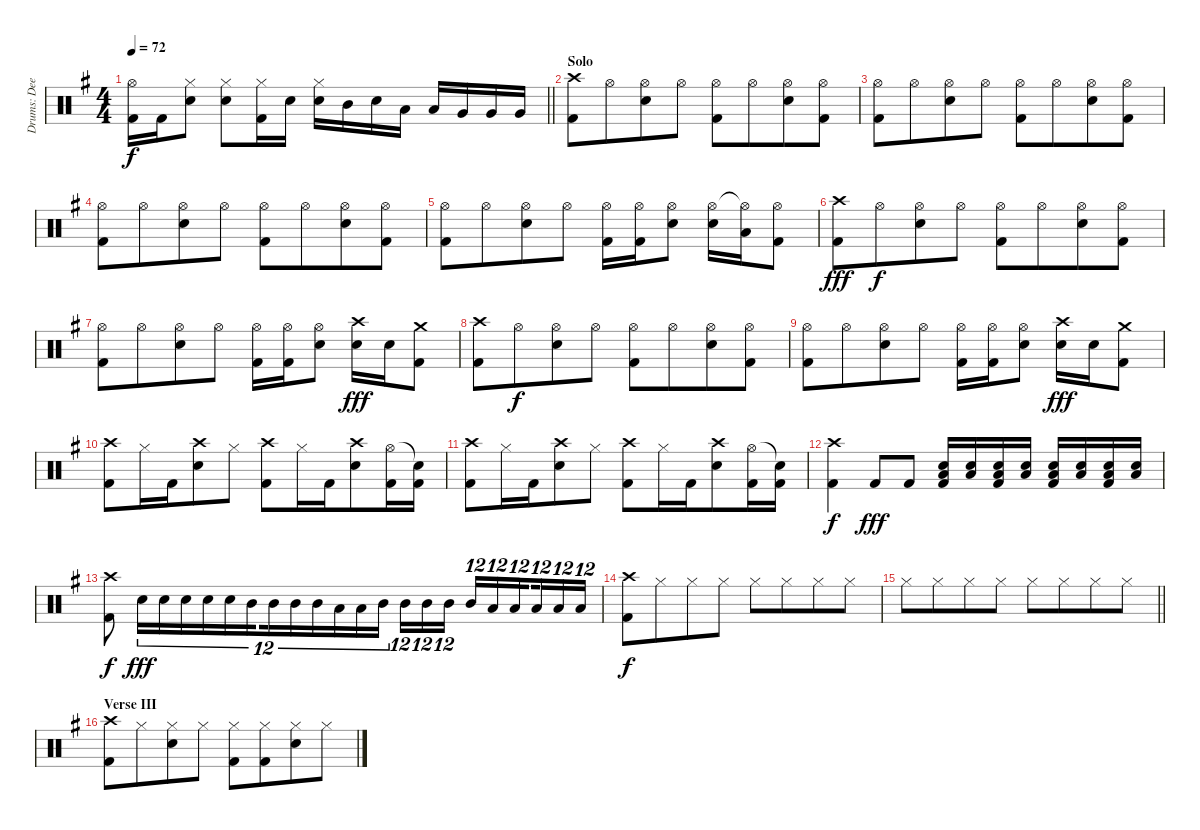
\track ("Drums: Deen" "Drums: Dee") {instrument percussion}
\staff {score}
\articulation defaults
\ts (4 4)
\tempo 72
\clef neutral
\barLineRight lightlight
\ks g
("Hi-Hat (open)" "Kick (hit) 2").16{dy f} "Kick (hit) 2".16 ("Hi-Hat (closed)" "Electric Snare (hit)").8 ("Hi-Hat (closed)" "Electric Snare (hit)").8 ("Hi-Hat (closed)" "Kick (hit) 2").16 "Electric Snare (hit)".16 ("Hi-Hat (closed)" "Electric Snare (hit)").16 "Mid Tom (hit)".16 "Electric Snare (hit)".16 "Low Tom (hit)".16 "Low Tom (hit)".16 "Very Low Tom (hit)".16 "Very Low Tom (hit)".16 "Very Low Tom (hit)".16 |
\section ("" "Solo")
("Crash high (hit)" "Kick (hit) 2").8 "Hi-Hat (open)".8{beam merge} ("Hi-Hat (open)" "Electric Snare (hit)").8 "Hi-Hat (open)".8 ("Hi-Hat (open)" "Kick (hit) 2").8 "Hi-Hat (open)".8{beam merge} ("Hi-Hat (open)" "Electric Snare (hit)").8 ("Hi-Hat (open)" "Kick (hit) 2").8 |
("Hi-Hat (open)" "Kick (hit) 2").8 "Hi-Hat (open)".8{beam merge} ("Hi-Hat (open)" "Electric Snare (hit)").8 "Hi-Hat (open)".8 ("Hi-Hat (open)" "Kick (hit) 2").8 "Hi-Hat (open)".8{beam merge} ("Hi-Hat (open)" "Electric Snare (hit)").8 ("Hi-Hat (open)" "Kick (hit) 2").8 |
("Hi-Hat (open)" "Kick (hit) 2").8 "Hi-Hat (open)".8{beam merge} ("Hi-Hat (open)" "Electric Snare (hit)").8 "Hi-Hat (open)".8 ("Hi-Hat (open)" "Kick (hit) 2").8 "Hi-Hat (open)".8{beam merge} ("Hi-Hat (open)" "Electric Snare (hit)").8 ("Hi-Hat (open)" "Kick (hit) 2").8 |
("Hi-Hat (open)" "Kick (hit) 2").8 "Hi-Hat (open)".8{beam merge} ("Hi-Hat (open)" "Electric Snare (hit)").8 "Hi-Hat (open)".8 ("Hi-Hat (open)" "Kick (hit) 2").16 ("Hi-Hat (open)" "Kick (hit) 2").16 ("Hi-Hat (open)" "Electric Snare (hit)").8 ("Hi-Hat (open)" "Electric Snare (hit)").16 ("Hi-Hat (open)"{t} "Low Tom (hit)").16 ("Hi-Hat (open)" "Kick (hit) 2").8 |
("Crash high (hit)" "Kick (hit) 2").8{dy fff} "Hi-Hat (open)".8{dy f beam merge} ("Hi-Hat (open)" "Electric Snare (hit)").8 "Hi-Hat (open)".8 ("Hi-Hat (open)" "Kick (hit) 2").8 "Hi-Hat (open)".8{beam merge} ("Hi-Hat (open)" "Electric Snare (hit)").8 ("Hi-Hat (open)" "Kick (hit) 2").8 |
("Hi-Hat (open)" "Kick (hit) 2").8 "Hi-Hat (open)".8{beam merge} ("Hi-Hat (open)" "Electric Snare (hit)").8 "Hi-Hat (open)".8 ("Hi-Hat (open)" "Kick (hit) 2").16 ("Hi-Hat (open)" "Kick (hit) 2").16 ("Hi-Hat (open)" "Electric Snare (hit)").8 ("Crash high (hit)" "Electric Snare (hit)").16{dy fff} "Electric Snare (hit)".16 ("Crash medium (hit)" "Kick (hit) 2").8 |
("Crash high (hit)" "Kick (hit) 2").8 "Hi-Hat (open)".8{dy f beam merge} ("Hi-Hat (open)" "Electric Snare (hit)").8 "Hi-Hat (open)".8 ("Hi-Hat (open)" "Kick (hit) 2").8 "Hi-Hat (open)".8{beam merge} ("Hi-Hat (open)" "Electric Snare (hit)").8 ("Hi-Hat (open)" "Kick (hit) 2").8 |
("Hi-Hat (open)" "Kick (hit) 2").8 "Hi-Hat (open)".8{beam merge} ("Hi-Hat (open)" "Electric Snare (hit)").8 "Hi-Hat (open)".8 ("Hi-Hat (open)" "Kick (hit) 2").16 ("Hi-Hat (open)" "Kick (hit) 2").16 ("Hi-Hat (open)" "Electric Snare (hit)").8 ("Crash high (hit)" "Electric Snare (hit)").16{dy fff} "Electric Snare (hit)".16 ("Crash medium (hit)" "Kick (hit) 2").8 |
("Crash high (hit)" "Kick (hit) 2").8 "Hi-Hat (closed)".16 "Kick (hit) 2".16{beam merge} ("Crash high (hit)" "Electric Snare (hit)").8 "Hi-Hat (closed)".8 ("Crash high (hit)" "Kick (hit) 2").8 "Hi-Hat (closed)".16 "Kick (hit) 2".16{beam merge} ("Crash high (hit)" "Electric Snare (hit)").8 ("Hi-Hat (open)" "Kick (hit) 2").16 ("Snare (hit)"{t} "Kick (hit) 2").16 |
("Crash high (hit)" "Kick (hit) 2").8 "Hi-Hat (closed)".16 "Kick (hit) 2".16{beam merge} ("Crash high (hit)" "Electric Snare (hit)").8 "Hi-Hat (closed)".8 ("Crash high (hit)" "Kick (hit) 2").8 "Hi-Hat (closed)".16 "Kick (hit) 2".16{beam merge} ("Crash high (hit)" "Electric Snare (hit)").8 ("Hi-Hat (open)" "Kick (hit) 2").16 ("Snare (hit)"{t} "Kick (hit) 2").16 |
("Crash high (hit)" "Kick (hit) 2").4{dy f} "Kick (hit) 2".8{dy fff} "Kick (hit) 2".8 ("Electric Snare (hit)" "Low Tom (hit)" "Kick (hit) 2").16 ("Electric Snare (hit)" "Low Tom (hit)").16 ("Electric Snare (hit)" "Low Tom (hit)" "Kick (hit) 2").16 ("Electric Snare (hit)" "Low Tom (hit)").16 ("Electric Snare (hit)" "Low Tom (hit)" "Kick (hit) 2").16 ("Electric Snare (hit)" "Low Tom (hit)").16 ("Electric Snare (hit)" "Low Tom (hit)" "Kick (hit) 2").16 ("Electric Snare (hit)" "Low Tom (hit)").16 |
("Crash high (hit)" "Kick (hit) 2").8{dy f} "Electric Snare (hit)".16{tu (12 8) dy fff} "Electric Snare (hit)".16{tu (12 8)} "Electric Snare (hit)".16{tu (12 8)} "Electric Snare (hit)".16{tu (12 8)} "Electric Snare (hit)".16{tu (12 8)} "Mid Tom (hit)".16{tu (12 8) beam splitsecondary} "Mid Tom (hit)".16{tu (12 8)} "Mid Tom (hit)".16{tu (12 8)} "Mid Tom (hit)".16{tu (12 8)} "Low Tom (hit)".16{tu (12 8)} "Low Tom (hit)".16{tu (12 8)} "Mid Tom (hit)".16{tu (12 8) beam splitsecondary} "Mid Tom (hit)".16{tu (12 8)} "Mid Tom (hit)".16{tu (12 8)} "Mid Tom (hit)".16{tu (12 8)} "Mid Tom (hit)".16{tu (12 8)} "Low Tom (hit)".16{tu (12 8)} "Low Tom (hit)".16{tu (12 8) beam splitsecondary} "Low Tom (hit)".16{tu (12 8)} "Low Tom (hit)".16{tu (12 8)} "Low Tom (hit)".16{tu (12 8)} |
("Crash high (hit)" "Kick (hit) 2").8{dy f} "Hi-Hat (closed)".8{beam merge} "Hi-Hat (closed)".8 "Hi-Hat (closed)".8 "Hi-Hat (closed)".8 "Hi-Hat (closed)".8{beam merge} "Hi-Hat (closed)".8 "Hi-Hat (closed)".8 |
\barLineRight lightlight "Hi-Hat (closed)".8 "Hi-Hat (closed)".8{beam merge} "Hi-Hat (closed)".8 "Hi-Hat (closed)".8 "Hi-Hat (closed)".8 "Hi-Hat (closed)".8{beam merge} "Hi-Hat (closed)".8 "Hi-Hat (closed)".8
|
\section ("" "Verse III")
("Crash high (hit)" "Kick (hit) 2").8 "Hi-Hat (closed)".8{beam merge} ("Hi-Hat (closed)" "Electric Snare (hit)").8 "Hi-Hat (closed)".8 ("Hi-Hat (closed)" "Kick (hit) 2").8 ("Hi-Hat (closed)" "Kick (hit) 2").8{beam merge} ("Hi-Hat (closed)" "Electric Snare (hit)").8 "Hi-Hat (closed)".8
